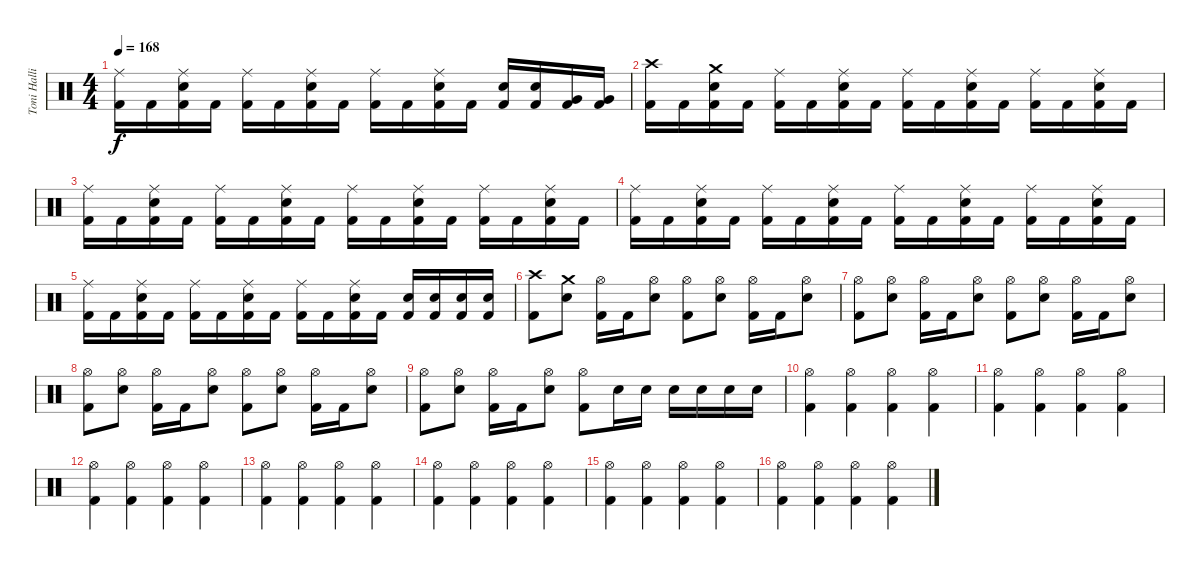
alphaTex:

\track ("Toni Hallio" "Toni Halli") {instrument percussion}
\staff {score}
\articulation defaults
\ts (4 4)
\tempo 168
\clef neutral
\ks c
("Ride (middle)" "Kick (hit) 2").16{dy f} "Kick (hit) 2".16 ("Ride (middle)" "Snare (hit) 2" "Kick (hit) 2").16 "Kick (hit) 2".16 ("Ride (middle)" "Kick (hit) 2").16 "Kick (hit) 2".16 ("Ride (middle)" "Snare (hit) 2" "Kick (hit) 2").16 "Kick (hit) 2".16 ("Ride (middle)" "Kick (hit) 2").16 "Kick (hit) 2".16 ("Ride (middle)" "Snare (hit) 2" "Kick (hit) 2").16 "Kick (hit) 2".16 ("Snare (hit) 2" "Kick (hit) 2").16 ("Snare (hit) 2" "Kick (hit) 2").16 ("Very Low Tom (hit)" "Kick (hit) 2").16 ("Very Low Tom (hit)" "Kick (hit) 2").16 |
("Crash high (hit)" "Kick (hit) 2").16 "Kick (hit) 2".16 ("Crash medium (hit)" "Snare (hit) 2" "Kick (hit) 2").16 "Kick (hit) 2".16 ("Ride (middle)" "Kick (hit) 2").16 "Kick (hit) 2".16 ("Ride (middle)" "Snare (hit) 2" "Kick (hit) 2").16 "Kick (hit) 2".16 ("Ride (middle)" "Kick (hit) 2").16 "Kick (hit) 2".16 ("Ride (middle)" "Snare (hit) 2" "Kick (hit) 2").16 "Kick (hit) 2".16 ("Ride (middle)" "Kick (hit) 2").16 "Kick (hit) 2".16 ("Ride (middle)" "Snare (hit) 2" "Kick (hit) 2").16 "Kick (hit) 2".16 |
("Ride (middle)" "Kick (hit) 2").16 "Kick (hit) 2".16 ("Ride (middle)" "Snare (hit) 2" "Kick (hit) 2").16 "Kick (hit) 2".16 ("Ride (middle)" "Kick (hit) 2").16 "Kick (hit) 2".16 ("Ride (middle)" "Snare (hit) 2" "Kick (hit) 2").16 "Kick (hit) 2".16 ("Ride (middle)" "Kick (hit) 2").16 "Kick (hit) 2".16 ("Ride (middle)" "Snare (hit) 2" "Kick (hit) 2").16 "Kick (hit) 2".16 ("Ride (middle)" "Kick (hit) 2").16 "Kick (hit) 2".16 ("Ride (middle)" "Snare (hit) 2" "Kick (hit) 2").16 "Kick (hit) 2".16 |
("Ride (middle)" "Kick (hit) 2").16 "Kick (hit) 2".16 ("Ride (middle)" "Snare (hit) 2" "Kick (hit) 2").16 "Kick (hit) 2".16 ("Ride (middle)" "Kick (hit) 2").16 "Kick (hit) 2".16 ("Ride (middle)" "Snare (hit) 2" "Kick (hit) 2").16 "Kick (hit) 2".16 ("Ride (middle)" "Kick (hit) 2").16 "Kick (hit) 2".16 ("Ride (middle)" "Snare (hit) 2" "Kick (hit) 2").16 "Kick (hit) 2".16 ("Ride (middle)" "Kick (hit) 2").16 "Kick (hit) 2".16 ("Ride (middle)" "Snare (hit) 2" "Kick (hit) 2").16 "Kick (hit) 2".16 |
("Ride (middle)" "Kick (hit) 2").16 "Kick (hit) 2".16 ("Ride (middle)" "Snare (hit) 2" "Kick (hit) 2").16 "Kick (hit) 2".16 ("Ride (middle)" "Kick (hit) 2").16 "Kick (hit) 2".16 ("Ride (middle)" "Snare (hit) 2" "Kick (hit) 2").16 "Kick (hit) 2".16 ("Ride (middle)" "Kick (hit) 2").16 "Kick (hit) 2".16 ("Ride (middle)" "Snare (hit) 2" "Kick (hit) 2").16 "Kick (hit) 2".16 ("Snare (hit) 2" "Kick (hit) 2").16 ("Snare (hit) 2" "Kick (hit) 2").16 ("Snare (hit) 2" "Kick (hit) 2").16 ("Snare (hit) 2" "Kick (hit) 2").16 |
("Crash high (hit)" "Kick (hit) 2").8 ("Crash medium (hit)" "Snare (hit) 2").8 ("Hi-Hat (open)" "Kick (hit) 2").16 "Kick (hit) 2".16 ("Hi-Hat (open)" "Snare (hit) 2").8 ("Hi-Hat (open)" "Kick (hit) 2").8 ("Hi-Hat (open)" "Snare (hit) 2").8 ("Hi-Hat (open)" "Kick (hit) 2").16 "Kick (hit) 2".16 ("Hi-Hat (open)" "Snare (hit) 2").8 |
("Hi-Hat (open)" "Kick (hit) 2").8 ("Hi-Hat (open)" "Snare (hit) 2").8 ("Hi-Hat (open)" "Kick (hit) 2").16 "Kick (hit) 2".16 ("Hi-Hat (open)" "Snare (hit) 2").8 ("Hi-Hat (open)" "Kick (hit) 2").8 ("Hi-Hat (open)" "Snare (hit) 2").8 ("Hi-Hat (open)" "Kick (hit) 2").16 "Kick (hit) 2".16 ("Hi-Hat (open)" "Snare (hit) 2").8 |
("Hi-Hat (open)" "Kick (hit) 2").8 ("Hi-Hat (open)" "Snare (hit) 2").8 ("Hi-Hat (open)" "Kick (hit) 2").16 "Kick (hit) 2".16 ("Hi-Hat (open)" "Snare (hit) 2").8 ("Hi-Hat (open)" "Kick (hit) 2").8 ("Hi-Hat (open)" "Snare (hit) 2").8 ("Hi-Hat (open)" "Kick (hit) 2").16 "Kick (hit) 2".16 ("Hi-Hat (open)" "Snare (hit) 2").8 |
("Hi-Hat (open)" "Kick (hit) 2").8 ("Hi-Hat (open)" "Snare (hit) 2").8 ("Hi-Hat (open)" "Kick (hit) 2").16 "Kick (hit) 2".16 ("Hi-Hat (open)" "Snare (hit) 2").8 ("Hi-Hat (open)" "Kick (hit) 2").8 "Snare (hit) 2".16 "Snare (hit) 2".16 "Snare (hit) 2".16 "Snare (hit) 2".16 "Snare (hit) 2".16 "Snare (hit) 2".16 |
("Hi-Hat (open)" "Kick (hit) 2").4 ("Hi-Hat (open)" "Kick (hit) 2").4 ("Hi-Hat (open)" "Kick (hit) 2").4 ("Hi-Hat (open)" "Kick (hit) 2").4 |
("Hi-Hat (open)" "Kick (hit) 2").4 ("Hi-Hat (open)" "Kick (hit) 2").4 ("Hi-Hat (open)" "Kick (hit) 2").4 ("Hi-Hat (open)" "Kick (hit) 2").4 |
("Hi-Hat (open)" "Kick (hit) 2").4 ("Hi-Hat (open)" "Kick (hit) 2").4 ("Hi-Hat (open)" "Kick (hit) 2").4 ("Hi-Hat (open)" "Kick (hit) 2").4 |
("Hi-Hat (open)" "Kick (hit) 2").4 ("Hi-Hat (open)" "Kick (hit) 2").4 ("Hi-Hat (open)" "Kick (hit) 2").4 ("Hi-Hat (open)" "Kick (hit) 2").4 |
("Hi-Hat (open)" "Kick (hit) 2").4 ("Hi-Hat (open)" "Kick (hit) 2").4 ("Hi-Hat (open)" "Kick (hit) 2").4 ("Hi-Hat (open)" "Kick (hit) 2").4 |
("Hi-Hat (open)" "Kick (hit) 2").4 ("Hi-Hat (open)" "Kick (hit) 2").4 ("Hi-Hat (open)" "Kick (hit) 2").4 ("Hi-Hat (open)" "Kick (hit) 2").4 |
("Hi-Hat (open)" "Kick (hit) 2").4 ("Hi-Hat (open)" "Kick (hit) 2").4 ("Hi-Hat (open)" "Kick (hit) 2").4 ("Hi-Hat (open)" "Kick (hit) 2").4
